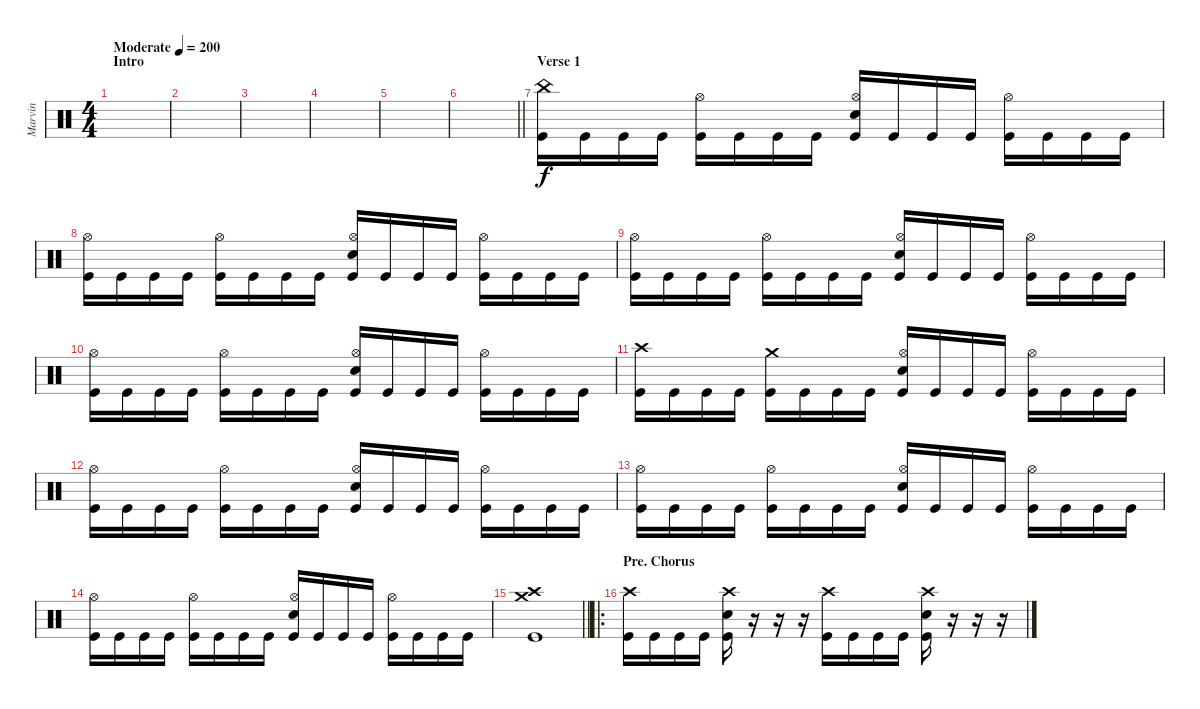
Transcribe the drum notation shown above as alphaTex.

\track ("Marvin" "Marvin") {solo instrument percussion}
\staff {score}
\articulation defaults
\ts (4 4)
\section ("" "Intro")
\tempo (200 "Moderate")
\clef neutral
\ks c
|
|
|
|
|
\barLineRight lightlight
|
\section ("" "Verse 1")
("Kick (hit)" "China (hit)").16 "Kick (hit)".16 "Kick (hit)".16 "Kick (hit)".16 ("Kick (hit)" "Hi-Hat (open)").16 "Kick (hit)".16 "Kick (hit)".16 "Kick (hit)".16 ("Kick (hit)" "Hi-Hat (open)" "Electric Snare (hit)").16 "Kick (hit)".16 "Kick (hit)".16 "Kick (hit)".16 ("Kick (hit)" "Hi-Hat (open)").16 "Kick (hit)".16 "Kick (hit)".16 "Kick (hit)".16 |
("Kick (hit)" "Hi-Hat (open)").16 "Kick (hit)".16 "Kick (hit)".16 "Kick (hit)".16 ("Kick (hit)" "Hi-Hat (open)").16 "Kick (hit)".16 "Kick (hit)".16 "Kick (hit)".16 ("Kick (hit)" "Hi-Hat (open)" "Electric Snare (hit)").16 "Kick (hit)".16 "Kick (hit)".16 "Kick (hit)".16 ("Kick (hit)" "Hi-Hat (open)").16 "Kick (hit)".16 "Kick (hit)".16 "Kick (hit)".16 |
("Kick (hit)" "Hi-Hat (open)").16 "Kick (hit)".16 "Kick (hit)".16 "Kick (hit)".16 ("Kick (hit)" "Hi-Hat (open)").16 "Kick (hit)".16 "Kick (hit)".16 "Kick (hit)".16 ("Kick (hit)" "Hi-Hat (open)" "Electric Snare (hit)").16 "Kick (hit)".16 "Kick (hit)".16 "Kick (hit)".16 ("Kick (hit)" "Hi-Hat (open)").16 "Kick (hit)".16 "Kick (hit)".16 "Kick (hit)".16 |
("Kick (hit)" "Hi-Hat (open)").16 "Kick (hit)".16 "Kick (hit)".16 "Kick (hit)".16 ("Kick (hit)" "Hi-Hat (open)").16 "Kick (hit)".16 "Kick (hit)".16 "Kick (hit)".16 ("Kick (hit)" "Hi-Hat (open)" "Electric Snare (hit)").16 "Kick (hit)".16 "Kick (hit)".16 "Kick (hit)".16 ("Kick (hit)" "Hi-Hat (open)").16 "Kick (hit)".16 "Kick (hit)".16 "Kick (hit)".16 |
("Kick (hit)" "Crash high (hit)").16 "Kick (hit)".16 "Kick (hit)".16 "Kick (hit)".16 ("Kick (hit)" "Crash medium (hit)").16 "Kick (hit)".16 "Kick (hit)".16 "Kick (hit)".16 ("Kick (hit)" "Hi-Hat (open)" "Electric Snare (hit)").16 "Kick (hit)".16 "Kick (hit)".16 "Kick (hit)".16 ("Kick (hit)" "Hi-Hat (open)").16 "Kick (hit)".16 "Kick (hit)".16 "Kick (hit)".16 |
("Kick (hit)" "Hi-Hat (open)").16 "Kick (hit)".16 "Kick (hit)".16 "Kick (hit)".16 ("Kick (hit)" "Hi-Hat (open)").16 "Kick (hit)".16 "Kick (hit)".16 "Kick (hit)".16 ("Kick (hit)" "Hi-Hat (open)" "Electric Snare (hit)").16 "Kick (hit)".16 "Kick (hit)".16 "Kick (hit)".16 ("Kick (hit)" "Hi-Hat (open)").16 "Kick (hit)".16 "Kick (hit)".16 "Kick (hit)".16 |
("Kick (hit)" "Hi-Hat (open)").16 "Kick (hit)".16 "Kick (hit)".16 "Kick (hit)".16 ("Kick (hit)" "Hi-Hat (open)").16 "Kick (hit)".16 "Kick (hit)".16 "Kick (hit)".16 ("Kick (hit)" "Hi-Hat (open)" "Electric Snare (hit)").16 "Kick (hit)".16 "Kick (hit)".16 "Kick (hit)".16 ("Kick (hit)" "Hi-Hat (open)").16 "Kick (hit)".16 "Kick (hit)".16 "Kick (hit)".16 |
("Kick (hit)" "Hi-Hat (open)").16 "Kick (hit)".16 "Kick (hit)".16 "Kick (hit)".16 ("Kick (hit)" "Hi-Hat (open)").16 "Kick (hit)".16 "Kick (hit)".16 "Kick (hit)".16 ("Kick (hit)" "Hi-Hat (open)" "Electric Snare (hit)").16 "Kick (hit)".16 "Kick (hit)".16 "Kick (hit)".16 ("Kick (hit)" "Hi-Hat (open)").16 "Kick (hit)".16 "Kick (hit)".16 "Kick (hit)".16 |
\barLineRight lightlight
("Crash high (hit)" "Crash medium (hit)" "Kick (hit)").1 |
\ro
\section ("" "Pre. Chorus")
("Kick (hit)" "Crash high (hit)").16 "Kick (hit)".16 "Kick (hit)".16 "Kick (hit)".16 ("Kick (hit)" "Electric Snare (hit)" "Crash high (hit)").16 r.16 r.16 r.16 ("Kick (hit)" "Crash high (hit)").16 "Kick (hit)".16 "Kick (hit)".16 "Kick (hit)".16 ("Kick (hit)" "Crash high (hit)" "Electric Snare (hit)").16 r.16 r.16 r.16
